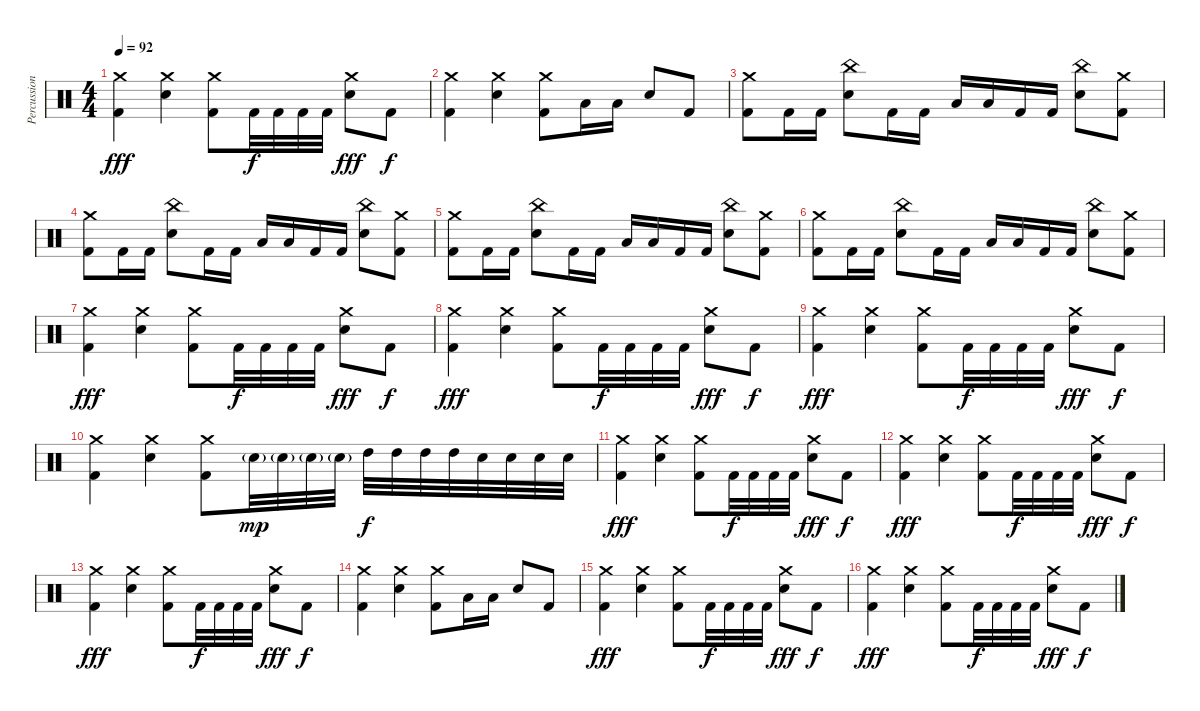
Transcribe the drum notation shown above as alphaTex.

\track ("Percussion" "Percussion") {instrument percussion}
\staff {score}
\articulation defaults
\ts (4 4)
\tempo 92
\clef neutral
\ks c
("Crash medium (hit)" "Kick (hit) 2").4{dy fff} ("Crash medium (hit)" "Electric Snare (hit)").4 ("Crash medium (hit)" "Kick (hit) 2").8 "Kick (hit) 2".32{dy f} "Kick (hit) 2".32 "Kick (hit) 2".32 "Kick (hit) 2".32 ("Crash medium (hit)" "Electric Snare (hit)").8{dy fff} "Kick (hit) 2".8{dy f} |
("Crash medium (hit)" "Kick (hit) 2").4 ("Crash medium (hit)" "Electric Snare (hit)").4 ("Crash medium (hit)" "Kick (hit) 2").8 "Low Floor Tom (hit)".16 "Low Floor Tom (hit)".16 "Electric Snare (hit)".8 "Kick (hit) 2".8 |
("Crash medium (hit)" "Kick (hit) 2").8 "Kick (hit) 2".16 "Kick (hit) 2".16 ("China (hit)" "Electric Snare (hit)").8 "Kick (hit) 2".16 "Kick (hit) 2".16 "Low Floor Tom (hit)".16 "Low Floor Tom (hit)".16 "Kick (hit) 2".16 "Kick (hit) 2".16 ("China (hit)" "Electric Snare (hit)").8 ("Crash medium (hit)" "Kick (hit) 2").8 |
("Crash medium (hit)" "Kick (hit) 2").8 "Kick (hit) 2".16 "Kick (hit) 2".16 ("China (hit)" "Electric Snare (hit)").8 "Kick (hit) 2".16 "Kick (hit) 2".16 "Low Floor Tom (hit)".16 "Low Floor Tom (hit)".16 "Kick (hit) 2".16 "Kick (hit) 2".16 ("China (hit)" "Electric Snare (hit)").8 ("Crash medium (hit)" "Kick (hit) 2").8 |
("Crash medium (hit)" "Kick (hit) 2").8 "Kick (hit) 2".16 "Kick (hit) 2".16 ("China (hit)" "Electric Snare (hit)").8 "Kick (hit) 2".16 "Kick (hit) 2".16 "Low Floor Tom (hit)".16 "Low Floor Tom (hit)".16 "Kick (hit) 2".16 "Kick (hit) 2".16 ("China (hit)" "Electric Snare (hit)").8 ("Crash medium (hit)" "Kick (hit) 2").8 |
("Crash medium (hit)" "Kick (hit) 2").8 "Kick (hit) 2".16 "Kick (hit) 2".16 ("China (hit)" "Electric Snare (hit)").8 "Kick (hit) 2".16 "Kick (hit) 2".16 "Low Floor Tom (hit)".16 "Low Floor Tom (hit)".16 "Kick (hit) 2".16 "Kick (hit) 2".16 ("China (hit)" "Electric Snare (hit)").8 ("Crash medium (hit)" "Kick (hit) 2").8 |
("Crash medium (hit)" "Kick (hit) 2").4{dy fff} ("Crash medium (hit)" "Electric Snare (hit)").4 ("Crash medium (hit)" "Kick (hit) 2").8 "Kick (hit) 2".32{dy f} "Kick (hit) 2".32 "Kick (hit) 2".32 "Kick (hit) 2".32 ("Crash medium (hit)" "Electric Snare (hit)").8{dy fff} "Kick (hit) 2".8{dy f} |
("Crash medium (hit)" "Kick (hit) 2").4{dy fff} ("Crash medium (hit)" "Electric Snare (hit)").4 ("Crash medium (hit)" "Kick (hit) 2").8 "Kick (hit) 2".32{dy f} "Kick (hit) 2".32 "Kick (hit) 2".32 "Kick (hit) 2".32 ("Crash medium (hit)" "Electric Snare (hit)").8{dy fff} "Kick (hit) 2".8{dy f} |
("Crash medium (hit)" "Kick (hit) 2").4{dy fff} ("Crash medium (hit)" "Electric Snare (hit)").4 ("Crash medium (hit)" "Kick (hit) 2").8 "Kick (hit) 2".32{dy f} "Kick (hit) 2".32 "Kick (hit) 2".32 "Kick (hit) 2".32 ("Crash medium (hit)" "Electric Snare (hit)").8{dy fff} "Kick (hit) 2".8{dy f} |
("Crash medium (hit)" "Kick (hit) 2").4 ("Crash medium (hit)" "Electric Snare (hit)").4 ("Crash medium (hit)" "Kick (hit) 2").8 "Electric Snare (hit)"{g}.32{dy mp} "Electric Snare (hit)"{g}.32 "Electric Snare (hit)"{g}.32 "Electric Snare (hit)"{g}.32 "High Tom (hit)".32{dy f} "High Tom (hit)".32 "High Tom (hit)".32 "High Tom (hit)".32 "Electric Snare (hit)".32 "Electric Snare (hit)".32 "Electric Snare (hit)".32 "Electric Snare (hit)".32 |
("Crash medium (hit)" "Kick (hit) 2").4{dy fff} ("Crash medium (hit)" "Electric Snare (hit)").4 ("Crash medium (hit)" "Kick (hit) 2").8 "Kick (hit) 2".32{dy f} "Kick (hit) 2".32 "Kick (hit) 2".32 "Kick (hit) 2".32 ("Crash medium (hit)" "Electric Snare (hit)").8{dy fff} "Kick (hit) 2".8{dy f} |
("Crash medium (hit)" "Kick (hit) 2").4{dy fff} ("Crash medium (hit)" "Electric Snare (hit)").4 ("Crash medium (hit)" "Kick (hit) 2").8 "Kick (hit) 2".32{dy f} "Kick (hit) 2".32 "Kick (hit) 2".32 "Kick (hit) 2".32 ("Crash medium (hit)" "Electric Snare (hit)").8{dy fff} "Kick (hit) 2".8{dy f} |
("Crash medium (hit)" "Kick (hit) 2").4{dy fff} ("Crash medium (hit)" "Electric Snare (hit)").4 ("Crash medium (hit)" "Kick (hit) 2").8 "Kick (hit) 2".32{dy f} "Kick (hit) 2".32 "Kick (hit) 2".32 "Kick (hit) 2".32 ("Crash medium (hit)" "Electric Snare (hit)").8{dy fff} "Kick (hit) 2".8{dy f} |
("Crash medium (hit)" "Kick (hit) 2").4 ("Crash medium (hit)" "Electric Snare (hit)").4 ("Crash medium (hit)" "Kick (hit) 2").8 "Low Floor Tom (hit)".16 "Low Floor Tom (hit)".16 "Electric Snare (hit)".8 "Kick (hit) 2".8 |
("Crash medium (hit)" "Kick (hit) 2").4{dy fff} ("Crash medium (hit)" "Electric Snare (hit)").4 ("Crash medium (hit)" "Kick (hit) 2").8 "Kick (hit) 2".32{dy f} "Kick (hit) 2".32 "Kick (hit) 2".32 "Kick (hit) 2".32 ("Crash medium (hit)" "Electric Snare (hit)").8{dy fff} "Kick (hit) 2".8{dy f} |
("Crash medium (hit)" "Kick (hit) 2").4{dy fff} ("Crash medium (hit)" "Electric Snare (hit)").4 ("Crash medium (hit)" "Kick (hit) 2").8 "Kick (hit) 2".32{dy f} "Kick (hit) 2".32 "Kick (hit) 2".32 "Kick (hit) 2".32 ("Crash medium (hit)" "Electric Snare (hit)").8{dy fff} "Kick (hit) 2".8{dy f}
